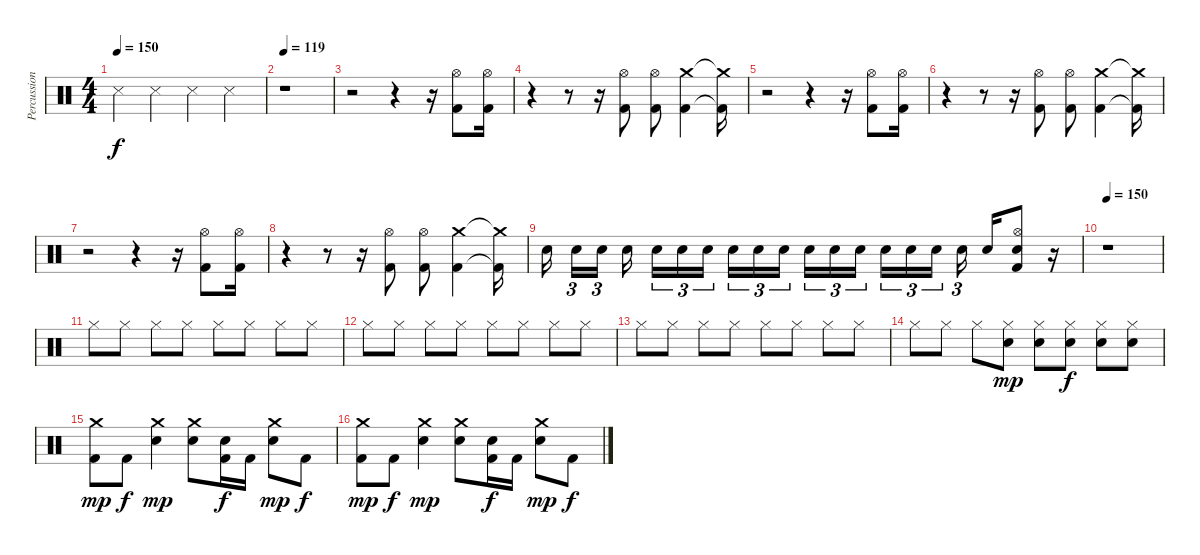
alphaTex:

\track ("Percussions" "Percussion") {instrument percussion}
\staff {score}
\articulation defaults
\ts (4 4)
\tempo 150
\tempo 130
\tempo 150
\clef neutral
\ks c "Metronome (hit)".4{dy f} "Metronome (hit)".4 "Metronome (hit)".4 "Metronome (hit)".4
|
\tempo 119
r.1 |
r.2 r.4 r.16 ("Kick (hit) 2" "Hi-Hat (open)").8 ("Kick (hit) 2" "Hi-Hat (open)").16 |
r.4 r.8 r.16 ("Kick (hit) 2" "Hi-Hat (open)").8 ("Kick (hit) 2" "Hi-Hat (open)").8 ("Kick (hit) 2" "Crash medium (hit)").4 ("Kick (hit) 2"{t} "Crash medium (hit)"{t}).16 |
r.2 r.4 r.16 ("Kick (hit) 2" "Hi-Hat (open)").8 ("Kick (hit) 2" "Hi-Hat (open)").16 |
r.4 r.8 r.16 ("Kick (hit) 2" "Hi-Hat (open)").8 ("Kick (hit) 2" "Hi-Hat (open)").8 ("Kick (hit) 2" "Crash medium (hit)").4 ("Kick (hit) 2"{t} "Crash medium (hit)"{t}).16 |
r.2 r.4 r.16 ("Kick (hit) 2" "Hi-Hat (open)").8 ("Kick (hit) 2" "Hi-Hat (open)").16 |
r.4 r.8 r.16 ("Kick (hit) 2" "Hi-Hat (open)").8 ("Kick (hit) 2" "Hi-Hat (open)").8 ("Kick (hit) 2" "Crash medium (hit)").4 ("Kick (hit) 2"{t} "Crash medium (hit)"{t}).16 |
"Electric Snare (hit)".16 "Electric Snare (hit)".16{tu (3 2)} "Electric Snare (hit)".16{tu (3 2)} "Electric Snare (hit)".16 "Electric Snare (hit)".16{tu (3 2)} "Electric Snare (hit)".16{tu (3 2)} "Electric Snare (hit)".16{tu (3 2)} "Electric Snare (hit)".16{tu (3 2)} "Electric Snare (hit)".16{tu (3 2)} "Electric Snare (hit)".16{tu (3 2)} "Electric Snare (hit)".16{tu (3 2)} "Electric Snare (hit)".16{tu (3 2)} "Electric Snare (hit)".16{tu (3 2)} "Electric Snare (hit)".16{tu (3 2)} "Electric Snare (hit)".16{tu (3 2)} "Electric Snare (hit)".16{tu (3 2)} "Electric Snare (hit)".16{tu (3 2)} "Electric Snare (hit)".16 ("Kick (hit) 2" "Electric Snare (hit)" "Hi-Hat (open)").8 r.16 |
\tempo 150
r.1 |
"Hi-Hat (closed)".8 "Hi-Hat (closed)".8 "Hi-Hat (closed)".8 "Hi-Hat (closed)".8 "Hi-Hat (closed)".8 "Hi-Hat (closed)".8 "Hi-Hat (closed)".8 "Hi-Hat (closed)".8 |
"Hi-Hat (closed)".8 "Hi-Hat (closed)".8 "Hi-Hat (closed)".8 "Hi-Hat (closed)".8 "Hi-Hat (closed)".8 "Hi-Hat (closed)".8 "Hi-Hat (closed)".8 "Hi-Hat (closed)".8 |
"Hi-Hat (closed)".8 "Hi-Hat (closed)".8 "Hi-Hat (closed)".8 "Hi-Hat (closed)".8 "Hi-Hat (closed)".8 "Hi-Hat (closed)".8 "Hi-Hat (closed)".8 "Hi-Hat (closed)".8 |
"Hi-Hat (closed)".8 "Hi-Hat (closed)".8 "Hi-Hat (closed)".8 ("Electric Snare (hit)" "Hi-Hat (closed)").8{dy mp} ("Electric Snare (hit)" "Hi-Hat (closed)").8 ("Electric Snare (hit)" "Hi-Hat (closed)").8{dy f} ("Electric Snare (hit)" "Hi-Hat (closed)").8 ("Electric Snare (hit)" "Hi-Hat (closed)").8 |
("Kick (hit) 2" "Crash medium (hit)").8{dy mp} "Kick (hit) 2".8{dy f} ("Electric Snare (hit)" "Crash medium (hit)").4{dy mp} ("Electric Snare (hit)" "Crash medium (hit)").8 ("Kick (hit) 2" "Electric Snare (hit)").16{dy f} "Kick (hit) 2".16 ("Electric Snare (hit)" "Crash medium (hit)").8{dy mp} "Kick (hit) 2".8{dy f} |
("Kick (hit) 2" "Crash medium (hit)").8{dy mp} "Kick (hit) 2".8{dy f} ("Electric Snare (hit)" "Crash medium (hit)").4{dy mp} ("Electric Snare (hit)" "Crash medium (hit)").8 ("Kick (hit) 2" "Electric Snare (hit)").16{dy f} "Kick (hit) 2".16 ("Electric Snare (hit)" "Crash medium (hit)").8{dy mp} "Kick (hit) 2".8{dy f}
